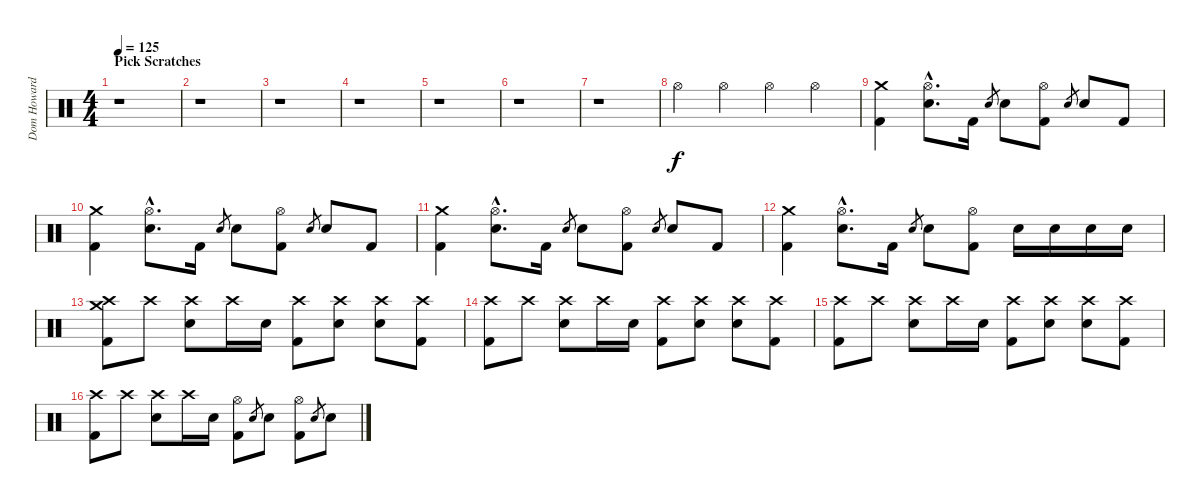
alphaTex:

\track ("Dom Howard" "Dom Howard") {instrument percussion}
\staff {score}
\articulation defaults
\ts (4 4)
\section ("" "Pick Scratches")
\tempo 125
\clef neutral
\ks c
r.1{dy f} |
r.1 |
r.1 |
r.1 |
r.1 |
r.1 |
r.1 |
"Hi-Hat (open)".4 "Hi-Hat (open)".4 "Hi-Hat (open)".4 "Hi-Hat (open)".4 |
("Crash medium (hit)" "Kick (hit) 2").4 ("Hi-Hat (open)"{hac} "Electric Snare (hit)"{hac}).8{d} "Kick (hit) 2".16 "Electric Snare (hit)".8{gr} "Electric Snare (hit)".8 ("Hi-Hat (open)" "Kick (hit) 2").8 "Electric Snare (hit)".8{gr} "Electric Snare (hit)".8 "Kick (hit) 2".8 |
("Crash medium (hit)" "Kick (hit) 2").4 ("Hi-Hat (open)"{hac} "Electric Snare (hit)"{hac}).8{d} "Kick (hit) 2".16 "Electric Snare (hit)".8{gr} "Electric Snare (hit)".8 ("Hi-Hat (open)" "Kick (hit) 2").8 "Electric Snare (hit)".8{gr} "Electric Snare (hit)".8 "Kick (hit) 2".8 |
("Crash medium (hit)" "Kick (hit) 2").4 ("Hi-Hat (open)"{hac} "Electric Snare (hit)"{hac}).8{d} "Kick (hit) 2".16 "Electric Snare (hit)".8{gr} "Electric Snare (hit)".8 ("Hi-Hat (open)" "Kick (hit) 2").8 "Electric Snare (hit)".8{gr} "Electric Snare (hit)".8 "Kick (hit) 2".8 |
("Crash medium (hit)" "Kick (hit) 2").4 ("Hi-Hat (open)"{hac} "Electric Snare (hit)"{hac}).8{d} "Kick (hit) 2".16 "Electric Snare (hit)".8{gr} "Electric Snare (hit)".8 ("Hi-Hat (open)" "Kick (hit) 2").8 "Electric Snare (hit)".16 "Electric Snare (hit)".16 "Electric Snare (hit)".16 "Electric Snare (hit)".16 |
("Crash medium (hit)" "Crash high (hit)" "Kick (hit) 2").8 "Crash high (hit)".8 ("Crash high (hit)" "Electric Snare (hit)").8 "Crash high (hit)".16 "Electric Snare (hit)".16 ("Crash high (hit)" "Kick (hit) 2").8 ("Crash high (hit)" "Electric Snare (hit)").8 ("Crash high (hit)" "Electric Snare (hit)").8 ("Crash high (hit)" "Kick (hit) 2").8 |
("Crash high (hit)" "Kick (hit) 2").8 "Crash high (hit)".8 ("Crash high (hit)" "Electric Snare (hit)").8 "Crash high (hit)".16 "Electric Snare (hit)".16 ("Crash high (hit)" "Kick (hit) 2").8 ("Crash high (hit)" "Electric Snare (hit)").8 ("Crash high (hit)" "Electric Snare (hit)").8 ("Crash high (hit)" "Kick (hit) 2").8 |
("Crash high (hit)" "Kick (hit) 2").8 "Crash high (hit)".8 ("Crash high (hit)" "Electric Snare (hit)").8 "Crash high (hit)".16 "Electric Snare (hit)".16 ("Crash high (hit)" "Kick (hit) 2").8 ("Crash high (hit)" "Electric Snare (hit)").8 ("Crash high (hit)" "Electric Snare (hit)").8 ("Crash high (hit)" "Kick (hit) 2").8 |
("Crash high (hit)" "Kick (hit) 2").8 "Crash high (hit)".8 ("Crash high (hit)" "Electric Snare (hit)").8 "Crash high (hit)".16 "Electric Snare (hit)".16 ("Hi-Hat (open)" "Kick (hit) 2").8 "Electric Snare (hit)".8{gr} "Electric Snare (hit)".8 ("Hi-Hat (open)" "Kick (hit) 2").8 "Electric Snare (hit)".8{gr} "Electric Snare (hit)".8
